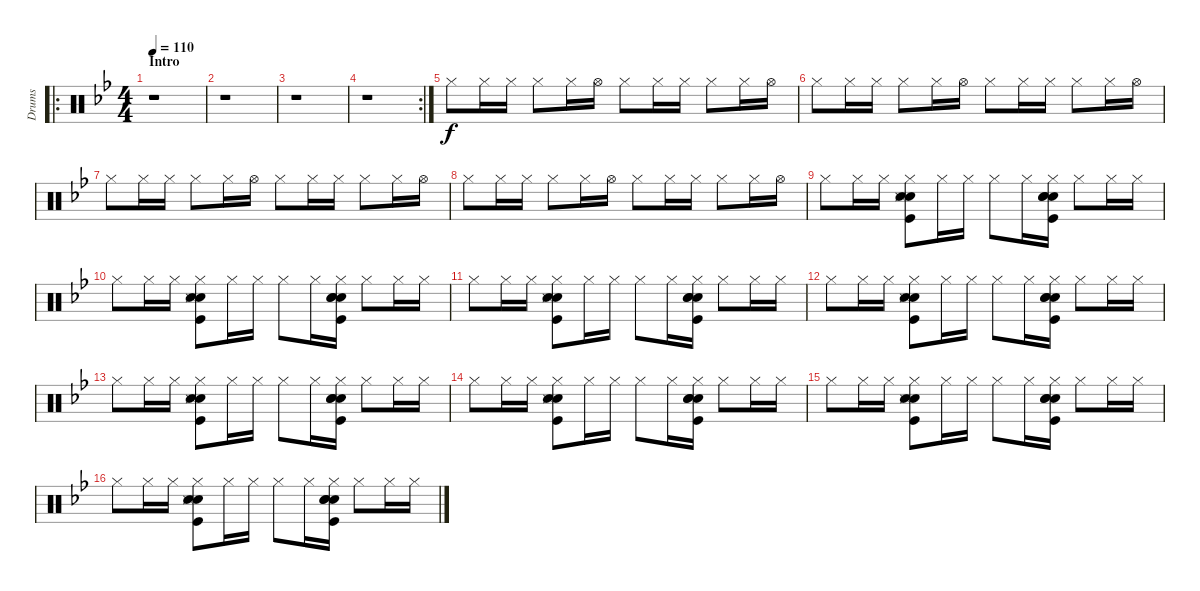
\track ("Drums" "Drums") {instrument percussion}
\staff {score}
\articulation defaults
\ro
\ts (4 4)
\section ("" "Intro")
\tempo 110
\clef neutral
\ks bb
r.1{dy f} |
r.1 |
r.1 |
\rc 2
r.1 |
"Hi-Hat (closed)".8 "Hi-Hat (closed)".16 "Hi-Hat (closed)".16 "Hi-Hat (closed)".8 "Hi-Hat (closed)".16 "Hi-Hat (open)".16 "Hi-Hat (closed)".8 "Hi-Hat (closed)".16 "Hi-Hat (closed)".16 "Hi-Hat (closed)".8 "Hi-Hat (closed)".16 "Hi-Hat (open)".16 |
"Hi-Hat (closed)".8 "Hi-Hat (closed)".16 "Hi-Hat (closed)".16 "Hi-Hat (closed)".8 "Hi-Hat (closed)".16 "Hi-Hat (open)".16 "Hi-Hat (closed)".8 "Hi-Hat (closed)".16 "Hi-Hat (closed)".16 "Hi-Hat (closed)".8 "Hi-Hat (closed)".16 "Hi-Hat (open)".16 |
"Hi-Hat (closed)".8 "Hi-Hat (closed)".16 "Hi-Hat (closed)".16 "Hi-Hat (closed)".8 "Hi-Hat (closed)".16 "Hi-Hat (open)".16 "Hi-Hat (closed)".8 "Hi-Hat (closed)".16 "Hi-Hat (closed)".16 "Hi-Hat (closed)".8 "Hi-Hat (closed)".16 "Hi-Hat (open)".16 |
"Hi-Hat (closed)".8 "Hi-Hat (closed)".16 "Hi-Hat (closed)".16 "Hi-Hat (closed)".8 "Hi-Hat (closed)".16 "Hi-Hat (open)".16 "Hi-Hat (closed)".8 "Hi-Hat (closed)".16 "Hi-Hat (closed)".16 "Hi-Hat (closed)".8 "Hi-Hat (closed)".16 "Hi-Hat (open)".16 |
"Hi-Hat (closed)".8 "Hi-Hat (closed)".16 "Hi-Hat (closed)".16 ("Hi-Hat (closed)" "Electric Snare (hit)" "Snare (side stick) 3" "Kick (hit)" "Hand Clap (hit)").8 "Hi-Hat (closed)".16 "Hi-Hat (closed)".16 "Hi-Hat (closed)".8 "Hi-Hat (closed)".16 ("Hi-Hat (closed)" "Electric Snare (hit)" "Snare (hit) 2" "Kick (hit)" "Hand Clap (hit)").16 "Hi-Hat (closed)".8 "Hi-Hat (closed)".16 "Hi-Hat (closed)".16 |
"Hi-Hat (closed)".8 "Hi-Hat (closed)".16 "Hi-Hat (closed)".16 ("Hi-Hat (closed)" "Electric Snare (hit)" "Snare (side stick) 3" "Kick (hit)" "Hand Clap (hit)").8 "Hi-Hat (closed)".16 "Hi-Hat (closed)".16 "Hi-Hat (closed)".8 "Hi-Hat (closed)".16 ("Hi-Hat (closed)" "Electric Snare (hit)" "Snare (hit) 2" "Kick (hit)" "Hand Clap (hit)").16 "Hi-Hat (closed)".8 "Hi-Hat (closed)".16 "Hi-Hat (closed)".16 |
"Hi-Hat (closed)".8 "Hi-Hat (closed)".16 "Hi-Hat (closed)".16 ("Hi-Hat (closed)" "Electric Snare (hit)" "Snare (side stick) 3" "Kick (hit)" "Hand Clap (hit)").8 "Hi-Hat (closed)".16 "Hi-Hat (closed)".16 "Hi-Hat (closed)".8 "Hi-Hat (closed)".16 ("Hi-Hat (closed)" "Electric Snare (hit)" "Snare (hit) 2" "Kick (hit)" "Hand Clap (hit)").16 "Hi-Hat (closed)".8 "Hi-Hat (closed)".16 "Hi-Hat (closed)".16 |
"Hi-Hat (closed)".8 "Hi-Hat (closed)".16 "Hi-Hat (closed)".16 ("Hi-Hat (closed)" "Electric Snare (hit)" "Snare (side stick) 3" "Kick (hit)" "Hand Clap (hit)").8 "Hi-Hat (closed)".16 "Hi-Hat (closed)".16 "Hi-Hat (closed)".8 "Hi-Hat (closed)".16 ("Hi-Hat (closed)" "Electric Snare (hit)" "Snare (hit) 2" "Kick (hit)" "Hand Clap (hit)").16 "Hi-Hat (closed)".8 "Hi-Hat (closed)".16 "Hi-Hat (closed)".16 |
"Hi-Hat (closed)".8 "Hi-Hat (closed)".16 "Hi-Hat (closed)".16 ("Hi-Hat (closed)" "Electric Snare (hit)" "Snare (side stick) 3" "Kick (hit)" "Hand Clap (hit)").8 "Hi-Hat (closed)".16 "Hi-Hat (closed)".16 "Hi-Hat (closed)".8 "Hi-Hat (closed)".16 ("Hi-Hat (closed)" "Electric Snare (hit)" "Snare (hit) 2" "Kick (hit)" "Hand Clap (hit)").16 "Hi-Hat (closed)".8 "Hi-Hat (closed)".16 "Hi-Hat (closed)".16 |
"Hi-Hat (closed)".8 "Hi-Hat (closed)".16 "Hi-Hat (closed)".16 ("Hi-Hat (closed)" "Electric Snare (hit)" "Snare (side stick) 3" "Kick (hit)" "Hand Clap (hit)").8 "Hi-Hat (closed)".16 "Hi-Hat (closed)".16 "Hi-Hat (closed)".8 "Hi-Hat (closed)".16 ("Hi-Hat (closed)" "Electric Snare (hit)" "Snare (hit) 2" "Kick (hit)" "Hand Clap (hit)").16 "Hi-Hat (closed)".8 "Hi-Hat (closed)".16 "Hi-Hat (closed)".16 |
"Hi-Hat (closed)".8 "Hi-Hat (closed)".16 "Hi-Hat (closed)".16 ("Hi-Hat (closed)" "Electric Snare (hit)" "Snare (side stick) 3" "Kick (hit)" "Hand Clap (hit)").8 "Hi-Hat (closed)".16 "Hi-Hat (closed)".16 "Hi-Hat (closed)".8 "Hi-Hat (closed)".16 ("Hi-Hat (closed)" "Electric Snare (hit)" "Snare (hit) 2" "Kick (hit)" "Hand Clap (hit)").16 "Hi-Hat (closed)".8 "Hi-Hat (closed)".16 "Hi-Hat (closed)".16 |
"Hi-Hat (closed)".8 "Hi-Hat (closed)".16 "Hi-Hat (closed)".16 ("Hi-Hat (closed)" "Electric Snare (hit)" "Snare (side stick) 3" "Kick (hit)" "Hand Clap (hit)").8 "Hi-Hat (closed)".16 "Hi-Hat (closed)".16 "Hi-Hat (closed)".8 "Hi-Hat (closed)".16 ("Hi-Hat (closed)" "Electric Snare (hit)" "Snare (hit) 2" "Kick (hit)" "Hand Clap (hit)").16 "Hi-Hat (closed)".8 "Hi-Hat (closed)".16 "Hi-Hat (closed)".16
